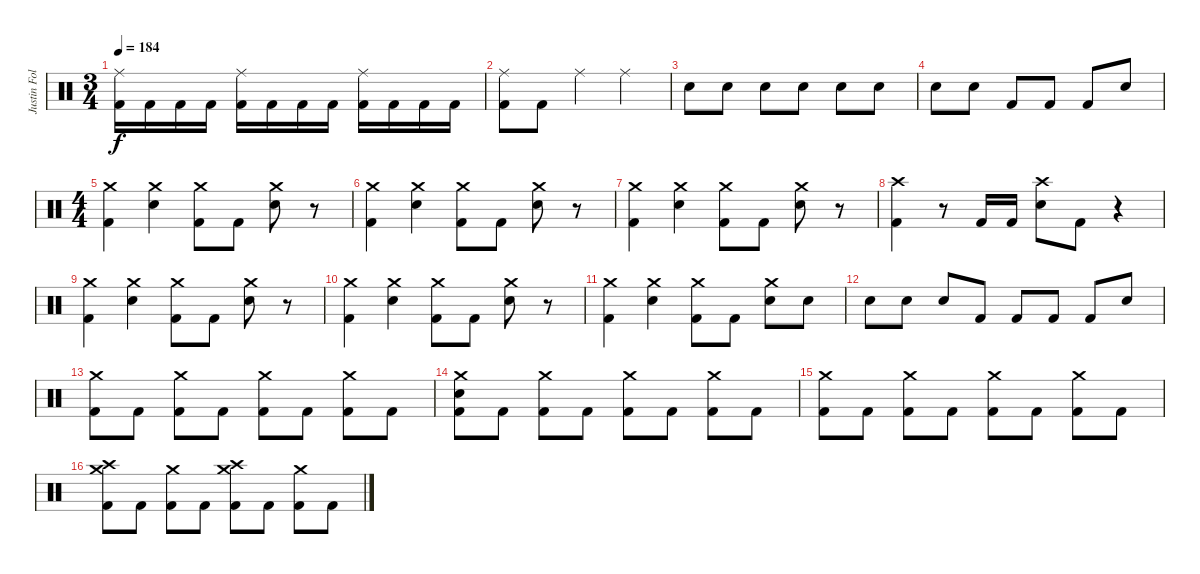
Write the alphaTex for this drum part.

\track ("Justin Foley" "Justin Fol") {instrument percussion}
\staff {score}
\articulation defaults
\ts (3 4)
\tempo 184
\clef neutral
\ks c
("Ride (middle)" "Kick (hit) 2").16{dy f} "Kick (hit) 2".16 "Kick (hit) 2".16 "Kick (hit) 2".16 ("Ride (middle)" "Kick (hit) 2").16 "Kick (hit) 2".16 "Kick (hit) 2".16 "Kick (hit) 2".16 ("Ride (middle)" "Kick (hit) 2").16 "Kick (hit) 2".16 "Kick (hit) 2".16 "Kick (hit) 2".16 |
("Ride (middle)" "Kick (hit) 2").8 "Kick (hit) 2".8 "Ride (middle)".4 "Ride (middle)".4 |
"Electric Snare (hit)".8 "Electric Snare (hit)".8 "Electric Snare (hit)".8 "Electric Snare (hit)".8 "Electric Snare (hit)".8 "Electric Snare (hit)".8 |
"Electric Snare (hit)".8 "Electric Snare (hit)".8 "Kick (hit) 2".8 "Kick (hit) 2".8 "Kick (hit) 2".8 "Electric Snare (hit)".8 |
\ts (4 4)
("Crash medium (hit)" "Kick (hit) 2").4 ("Crash medium (hit)" "Electric Snare (hit)").4 ("Crash medium (hit)" "Kick (hit) 2").8 "Kick (hit) 2".8 ("Crash medium (hit)" "Electric Snare (hit)").8 r.8 |
("Crash medium (hit)" "Kick (hit) 2").4 ("Crash medium (hit)" "Electric Snare (hit)").4 ("Crash medium (hit)" "Kick (hit) 2").8 "Kick (hit) 2".8 ("Crash medium (hit)" "Electric Snare (hit)").8 r.8 |
("Crash medium (hit)" "Kick (hit) 2").4 ("Crash medium (hit)" "Electric Snare (hit)").4 ("Crash medium (hit)" "Kick (hit) 2").8 "Kick (hit) 2".8 ("Crash medium (hit)" "Electric Snare (hit)").8 r.8 |
("Crash high (hit)" "Kick (hit) 2").4 r.8 "Kick (hit) 2".16 "Kick (hit) 2".16 ("Crash high (hit)" "Electric Snare (hit)").8 "Kick (hit) 2".8 r.4 |
("Crash medium (hit)" "Kick (hit) 2").4 ("Crash medium (hit)" "Electric Snare (hit)").4 ("Crash medium (hit)" "Kick (hit) 2").8 "Kick (hit) 2".8 ("Crash medium (hit)" "Electric Snare (hit)").8 r.8 |
("Crash medium (hit)" "Kick (hit) 2").4 ("Crash medium (hit)" "Electric Snare (hit)").4 ("Crash medium (hit)" "Kick (hit) 2").8 "Kick (hit) 2".8 ("Crash medium (hit)" "Electric Snare (hit)").8 r.8 |
("Crash medium (hit)" "Kick (hit) 2").4 ("Crash medium (hit)" "Electric Snare (hit)").4 ("Crash medium (hit)" "Kick (hit) 2").8 "Kick (hit) 2".8 ("Crash medium (hit)" "Electric Snare (hit)").8 "Electric Snare (hit)".8 |
"Electric Snare (hit)".8 "Electric Snare (hit)".8 "Electric Snare (hit)".8 "Kick (hit) 2".8 "Kick (hit) 2".8 "Kick (hit) 2".8 "Kick (hit) 2".8 "Electric Snare (hit)".8 |
("Crash medium (hit)" "Kick (hit) 2").8 "Kick (hit) 2".8 ("Crash medium (hit)" "Kick (hit) 2").8 "Kick (hit) 2".8 ("Crash medium (hit)" "Kick (hit) 2").8 "Kick (hit) 2".8 ("Crash medium (hit)" "Kick (hit) 2").8 "Kick (hit) 2".8 |
("Crash medium (hit)" "Electric Snare (hit)" "Kick (hit) 2").8 "Kick (hit) 2".8 ("Crash medium (hit)" "Kick (hit) 2").8 "Kick (hit) 2".8 ("Crash medium (hit)" "Kick (hit) 2").8 "Kick (hit) 2".8 ("Crash medium (hit)" "Kick (hit) 2").8 "Kick (hit) 2".8 |
("Crash medium (hit)" "Kick (hit) 2").8 "Kick (hit) 2".8 ("Crash medium (hit)" "Kick (hit) 2").8 "Kick (hit) 2".8 ("Crash medium (hit)" "Kick (hit) 2").8 "Kick (hit) 2".8 ("Crash medium (hit)" "Kick (hit) 2").8 "Kick (hit) 2".8 |
("Crash medium (hit)" "Crash high (hit)" "Kick (hit) 2").8 "Kick (hit) 2".8 ("Crash medium (hit)" "Kick (hit) 2").8 "Kick (hit) 2".8 ("Crash medium (hit)" "Crash high (hit)" "Kick (hit) 2").8 "Kick (hit) 2".8 ("Crash medium (hit)" "Kick (hit) 2").8 "Kick (hit) 2".8
